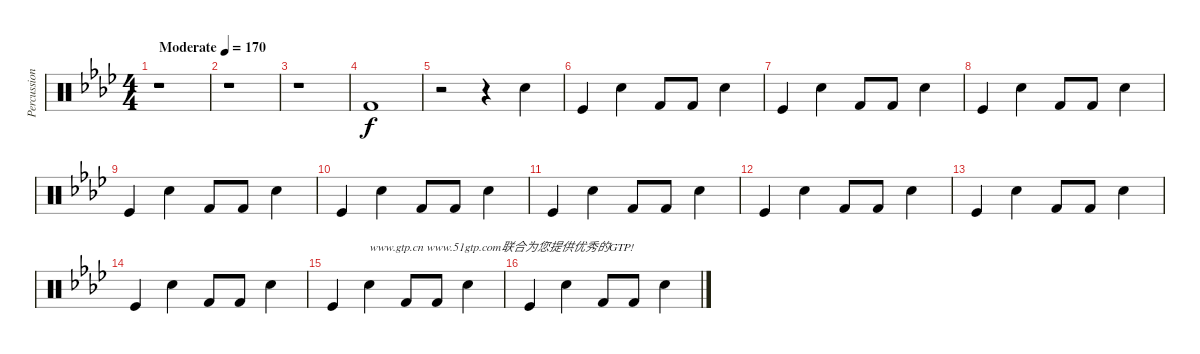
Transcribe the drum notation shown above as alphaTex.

\track ("Percussions" "Percussion") {instrument percussion}
\staff {score}
\articulation defaults
\ts (4 4)
\tempo (170 "Moderate")
\clef neutral
\ks ab
r.1{dy f} |
r.1 |
r.1 |
"Kick (hit) 2".1 |
r.2 r.4 "Electric Snare (hit)".4 |
"Kick (hit)".4 "Snare (hit) 2".4 "Kick (hit) 2".8 "Kick (hit) 2".8 "Snare (hit) 2".4 |
"Kick (hit)".4 "Snare (hit) 2".4 "Kick (hit) 2".8 "Kick (hit) 2".8 "Snare (hit) 2".4 |
"Kick (hit)".4 "Snare (hit) 2".4 "Kick (hit) 2".8 "Kick (hit) 2".8 "Snare (hit) 2".4 |
"Kick (hit)".4 "Snare (hit) 2".4 "Kick (hit) 2".8 "Kick (hit) 2".8 "Snare (hit) 2".4 |
"Kick (hit)".4 "Snare (hit) 2".4 "Kick (hit) 2".8 "Kick (hit) 2".8 "Snare (hit) 2".4 |
"Kick (hit)".4 "Snare (hit) 2".4 "Kick (hit) 2".8 "Kick (hit) 2".8 "Snare (hit) 2".4 |
"Kick (hit)".4 "Snare (hit) 2".4 "Kick (hit) 2".8 "Kick (hit) 2".8 "Snare (hit) 2".4 |
"Kick (hit)".4 "Snare (hit) 2".4 "Kick (hit) 2".8 "Kick (hit) 2".8 "Snare (hit) 2".4 |
"Kick (hit)".4 "Snare (hit) 2".4 "Kick (hit) 2".8 "Kick (hit) 2".8 "Snare (hit) 2".4 |
"Kick (hit)".4 "Snare (hit) 2".4{txt "www.gtp.cn www.51gtp.com联合为您提供优秀的GTP!"} "Kick (hit) 2".8 "Kick (hit) 2".8 "Snare (hit) 2".4 |
"Kick (hit)".4 "Snare (hit) 2".4 "Kick (hit) 2".8 "Kick (hit) 2".8 "Snare (hit) 2".4
